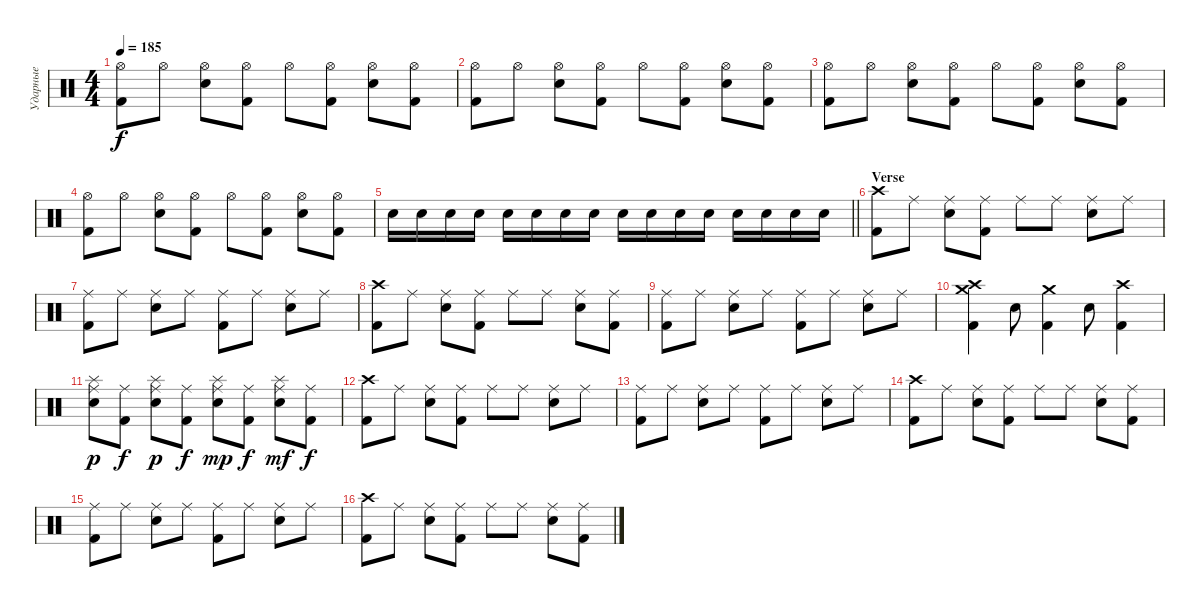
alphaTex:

\track ("Ударные" "Ударные") {instrument percussion}
\staff {score}
\articulation defaults
\ts (4 4)
\tempo 185
\clef neutral
\ks c
("Kick (hit) 2" "Hi-Hat (open)").8{dy f} "Hi-Hat (open)".8 ("Hi-Hat (open)" "Electric Snare (hit)").8 ("Hi-Hat (open)" "Kick (hit) 2").8 "Hi-Hat (open)".8 ("Hi-Hat (open)" "Kick (hit) 2").8 ("Hi-Hat (open)" "Electric Snare (hit)").8 ("Hi-Hat (open)" "Kick (hit) 2").8 |
("Kick (hit) 2" "Hi-Hat (open)").8 "Hi-Hat (open)".8 ("Hi-Hat (open)" "Electric Snare (hit)").8 ("Hi-Hat (open)" "Kick (hit) 2").8 "Hi-Hat (open)".8 ("Hi-Hat (open)" "Kick (hit) 2").8 ("Hi-Hat (open)" "Electric Snare (hit)").8 ("Hi-Hat (open)" "Kick (hit) 2").8 |
("Kick (hit) 2" "Hi-Hat (open)").8 "Hi-Hat (open)".8 ("Hi-Hat (open)" "Electric Snare (hit)").8 ("Hi-Hat (open)" "Kick (hit) 2").8 "Hi-Hat (open)".8 ("Hi-Hat (open)" "Kick (hit) 2").8 ("Hi-Hat (open)" "Electric Snare (hit)").8 ("Hi-Hat (open)" "Kick (hit) 2").8 |
("Kick (hit) 2" "Hi-Hat (open)").8 "Hi-Hat (open)".8 ("Hi-Hat (open)" "Electric Snare (hit)").8 ("Hi-Hat (open)" "Kick (hit) 2").8 "Hi-Hat (open)".8 ("Hi-Hat (open)" "Kick (hit) 2").8 ("Hi-Hat (open)" "Electric Snare (hit)").8 ("Hi-Hat (open)" "Kick (hit) 2").8 |
\barLineRight lightlight "Electric Snare (hit)".16 "Electric Snare (hit)".16 "Electric Snare (hit)".16 "Electric Snare (hit)".16 "Electric Snare (hit)".16 "Electric Snare (hit)".16 "Electric Snare (hit)".16 "Electric Snare (hit)".16 "Electric Snare (hit)".16 "Electric Snare (hit)".16 "Electric Snare (hit)".16 "Electric Snare (hit)".16 "Electric Snare (hit)".16 "Electric Snare (hit)".16 "Electric Snare (hit)".16 "Electric Snare (hit)".16
|
\section ("" "Verse")
("Kick (hit) 2" "Crash high (hit)").8 "Ride (middle)".8 ("Ride (middle)" "Electric Snare (hit)").8 ("Ride (middle)" "Kick (hit) 2").8 "Ride (middle)".8 "Ride (middle)".8 ("Ride (middle)" "Electric Snare (hit)").8 "Ride (middle)".8 |
("Ride (middle)" "Kick (hit) 2").8 "Ride (middle)".8 ("Ride (middle)" "Electric Snare (hit)").8 "Ride (middle)".8 ("Ride (middle)" "Kick (hit) 2").8 "Ride (middle)".8 ("Ride (middle)" "Electric Snare (hit)").8 "Ride (middle)".8 |
("Kick (hit) 2" "Crash high (hit)").8 "Ride (middle)".8 ("Ride (middle)" "Electric Snare (hit)").8 ("Ride (middle)" "Kick (hit) 2").8 "Ride (middle)".8 "Ride (middle)".8 ("Ride (middle)" "Electric Snare (hit)").8 ("Ride (middle)" "Kick (hit) 2").8 |
("Ride (middle)" "Kick (hit) 2").8 "Ride (middle)".8 ("Ride (middle)" "Electric Snare (hit)").8 "Ride (middle)".8 ("Ride (middle)" "Kick (hit) 2").8 "Ride (middle)".8 ("Ride (middle)" "Electric Snare (hit)").8 "Ride (middle)".8 |
("Crash high (hit)" "Crash medium (hit)" "Kick (hit) 2").4 "Electric Snare (hit)".8 ("Crash medium (hit)" "Kick (hit) 2").4 "Electric Snare (hit)".8 ("Crash high (hit)" "Kick (hit) 2").4 |
("Electric Snare (hit)" "Ride (middle)" "Splash (hit)").8{dy p} ("Kick (hit) 2" "Ride (middle)").8{dy f} ("Electric Snare (hit)" "Ride (middle)" "Splash (hit)").8{dy p} ("Kick (hit) 2" "Ride (middle)").8{dy f} ("Electric Snare (hit)" "Ride (middle)" "Splash (hit)").8{dy mp} ("Kick (hit) 2" "Ride (middle)").8{dy f} ("Electric Snare (hit)" "Ride (middle)" "Splash (hit)").8{dy mf} ("Kick (hit) 2" "Ride (middle)").8{dy f} |
("Kick (hit) 2" "Crash high (hit)").8 "Ride (middle)".8 ("Ride (middle)" "Electric Snare (hit)").8 ("Ride (middle)" "Kick (hit) 2").8 "Ride (middle)".8 "Ride (middle)".8 ("Ride (middle)" "Electric Snare (hit)").8 "Ride (middle)".8 |
("Ride (middle)" "Kick (hit) 2").8 "Ride (middle)".8 ("Ride (middle)" "Electric Snare (hit)").8 "Ride (middle)".8 ("Ride (middle)" "Kick (hit) 2").8 "Ride (middle)".8 ("Ride (middle)" "Electric Snare (hit)").8 "Ride (middle)".8 |
("Kick (hit) 2" "Crash high (hit)").8 "Ride (middle)".8 ("Ride (middle)" "Electric Snare (hit)").8 ("Ride (middle)" "Kick (hit) 2").8 "Ride (middle)".8 "Ride (middle)".8 ("Ride (middle)" "Electric Snare (hit)").8 ("Ride (middle)" "Kick (hit) 2").8 |
("Ride (middle)" "Kick (hit) 2").8 "Ride (middle)".8 ("Ride (middle)" "Electric Snare (hit)").8 "Ride (middle)".8 ("Ride (middle)" "Kick (hit) 2").8 "Ride (middle)".8 ("Ride (middle)" "Electric Snare (hit)").8 "Ride (middle)".8 |
("Kick (hit) 2" "Crash high (hit)").8 "Ride (middle)".8 ("Ride (middle)" "Electric Snare (hit)").8 ("Ride (middle)" "Kick (hit) 2").8 "Ride (middle)".8 "Ride (middle)".8 ("Ride (middle)" "Electric Snare (hit)").8 ("Ride (middle)" "Kick (hit) 2").8
